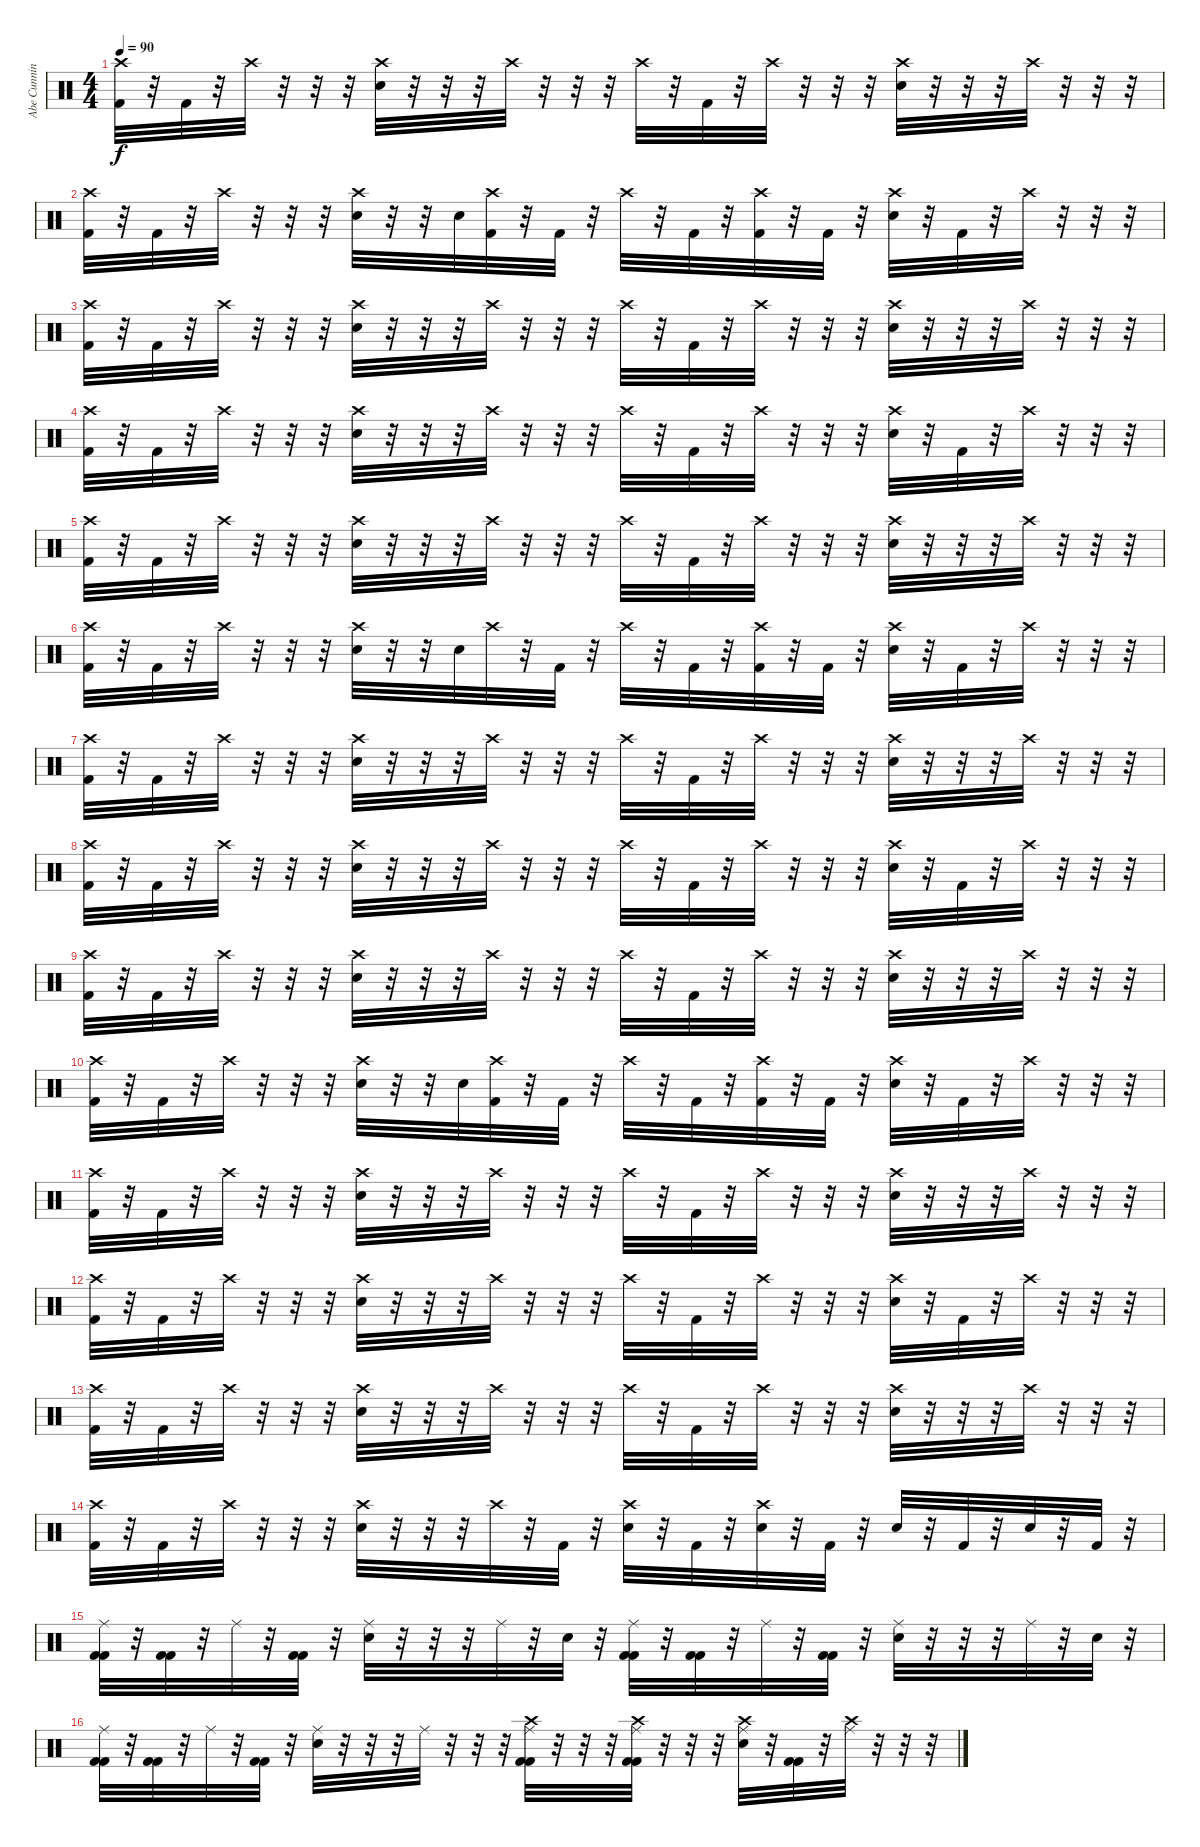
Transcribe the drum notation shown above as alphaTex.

\track ("Abe Cunningham - Drums" "Abe Cunnin") {instrument percussion}
\staff {score}
\articulation defaults
\ts (4 4)
\tempo 90
\clef neutral
\ks c
("Crash high (hit)" "Kick (hit) 2").32{dy f} r.32 "Kick (hit) 2".32 r.32 "Crash high (hit)".32 r.32 r.32 r.32 ("Crash high (hit)" "Electric Snare (hit)").32 r.32 r.32 r.32 "Crash high (hit)".32 r.32 r.32 r.32 "Crash high (hit)".32 r.32 "Kick (hit) 2".32 r.32 "Crash high (hit)".32 r.32 r.32 r.32 ("Crash high (hit)" "Electric Snare (hit)").32 r.32 r.32 r.32 "Crash high (hit)".32 r.32 r.32 r.32 |
("Crash high (hit)" "Kick (hit) 2").32 r.32 "Kick (hit) 2".32 r.32 "Crash high (hit)".32 r.32 r.32 r.32 ("Crash high (hit)" "Electric Snare (hit)").32 r.32 r.32 "Electric Snare (hit)".32 ("Crash high (hit)" "Kick (hit) 2").32 r.32 "Kick (hit) 2".32 r.32 "Crash high (hit)".32 r.32 "Kick (hit) 2".32 r.32 ("Crash high (hit)" "Kick (hit) 2").32 r.32 "Kick (hit) 2".32 r.32 ("Crash high (hit)" "Electric Snare (hit)").32 r.32 "Kick (hit) 2".32 r.32 "Crash high (hit)".32 r.32 r.32 r.32 |
("Crash high (hit)" "Kick (hit) 2").32 r.32 "Kick (hit) 2".32 r.32 "Crash high (hit)".32 r.32 r.32 r.32 ("Crash high (hit)" "Electric Snare (hit)").32 r.32 r.32 r.32 "Crash high (hit)".32 r.32 r.32 r.32 "Crash high (hit)".32 r.32 "Kick (hit) 2".32 r.32 "Crash high (hit)".32 r.32 r.32 r.32 ("Crash high (hit)" "Electric Snare (hit)").32 r.32 r.32 r.32 "Crash high (hit)".32 r.32 r.32 r.32 |
("Crash high (hit)" "Kick (hit) 2").32 r.32 "Kick (hit) 2".32 r.32 "Crash high (hit)".32 r.32 r.32 r.32 ("Crash high (hit)" "Electric Snare (hit)").32 r.32 r.32 r.32 "Crash high (hit)".32 r.32 r.32 r.32 "Crash high (hit)".32 r.32 "Kick (hit) 2".32 r.32 "Crash high (hit)".32 r.32 r.32 r.32 ("Crash high (hit)" "Electric Snare (hit)").32 r.32 "Kick (hit) 2".32 r.32 "Crash high (hit)".32 r.32 r.32 r.32 |
("Crash high (hit)" "Kick (hit) 2").32 r.32 "Kick (hit) 2".32 r.32 "Crash high (hit)".32 r.32 r.32 r.32 ("Crash high (hit)" "Electric Snare (hit)").32 r.32 r.32 r.32 "Crash high (hit)".32 r.32 r.32 r.32 "Crash high (hit)".32 r.32 "Kick (hit) 2".32 r.32 "Crash high (hit)".32 r.32 r.32 r.32 ("Crash high (hit)" "Electric Snare (hit)").32 r.32 r.32 r.32 "Crash high (hit)".32 r.32 r.32 r.32 |
("Crash high (hit)" "Kick (hit) 2").32 r.32 "Kick (hit) 2".32 r.32 "Crash high (hit)".32 r.32 r.32 r.32 ("Crash high (hit)" "Electric Snare (hit)").32 r.32 r.32 "Electric Snare (hit)".32 "Crash high (hit)".32 r.32 "Kick (hit) 2".32 r.32 "Crash high (hit)".32 r.32 "Kick (hit) 2".32 r.32 ("Crash high (hit)" "Kick (hit) 2").32 r.32 "Kick (hit) 2".32 r.32 ("Crash high (hit)" "Electric Snare (hit)").32 r.32 "Kick (hit) 2".32 r.32 "Crash high (hit)".32 r.32 r.32 r.32 |
("Crash high (hit)" "Kick (hit) 2").32 r.32 "Kick (hit) 2".32 r.32 "Crash high (hit)".32 r.32 r.32 r.32 ("Crash high (hit)" "Electric Snare (hit)").32 r.32 r.32 r.32 "Crash high (hit)".32 r.32 r.32 r.32 "Crash high (hit)".32 r.32 "Kick (hit) 2".32 r.32 "Crash high (hit)".32 r.32 r.32 r.32 ("Crash high (hit)" "Electric Snare (hit)").32 r.32 r.32 r.32 "Crash high (hit)".32 r.32 r.32 r.32 |
("Crash high (hit)" "Kick (hit) 2").32 r.32 "Kick (hit) 2".32 r.32 "Crash high (hit)".32 r.32 r.32 r.32 ("Crash high (hit)" "Electric Snare (hit)").32 r.32 r.32 r.32 "Crash high (hit)".32 r.32 r.32 r.32 "Crash high (hit)".32 r.32 "Kick (hit) 2".32 r.32 "Crash high (hit)".32 r.32 r.32 r.32 ("Crash high (hit)" "Electric Snare (hit)").32 r.32 "Kick (hit) 2".32 r.32 "Crash high (hit)".32 r.32 r.32 r.32 |
("Crash high (hit)" "Kick (hit) 2").32 r.32 "Kick (hit) 2".32 r.32 "Crash high (hit)".32 r.32 r.32 r.32 ("Crash high (hit)" "Electric Snare (hit)").32 r.32 r.32 r.32 "Crash high (hit)".32 r.32 r.32 r.32 "Crash high (hit)".32 r.32 "Kick (hit) 2".32 r.32 "Crash high (hit)".32 r.32 r.32 r.32 ("Crash high (hit)" "Electric Snare (hit)").32 r.32 r.32 r.32 "Crash high (hit)".32 r.32 r.32 r.32 |
("Crash high (hit)" "Kick (hit) 2").32 r.32 "Kick (hit) 2".32 r.32 "Crash high (hit)".32 r.32 r.32 r.32 ("Crash high (hit)" "Electric Snare (hit)").32 r.32 r.32 "Electric Snare (hit)".32 ("Crash high (hit)" "Kick (hit) 2").32 r.32 "Kick (hit) 2".32 r.32 "Crash high (hit)".32 r.32 "Kick (hit) 2".32 r.32 ("Crash high (hit)" "Kick (hit) 2").32 r.32 "Kick (hit) 2".32 r.32 ("Crash high (hit)" "Electric Snare (hit)").32 r.32 "Kick (hit) 2".32 r.32 "Crash high (hit)".32 r.32 r.32 r.32 |
("Crash high (hit)" "Kick (hit) 2").32 r.32 "Kick (hit) 2".32 r.32 "Crash high (hit)".32 r.32 r.32 r.32 ("Crash high (hit)" "Electric Snare (hit)").32 r.32 r.32 r.32 "Crash high (hit)".32 r.32 r.32 r.32 "Crash high (hit)".32 r.32 "Kick (hit) 2".32 r.32 "Crash high (hit)".32 r.32 r.32 r.32 ("Crash high (hit)" "Electric Snare (hit)").32 r.32 r.32 r.32 "Crash high (hit)".32 r.32 r.32 r.32 |
("Crash high (hit)" "Kick (hit) 2").32 r.32 "Kick (hit) 2".32 r.32 "Crash high (hit)".32 r.32 r.32 r.32 ("Crash high (hit)" "Electric Snare (hit)").32 r.32 r.32 r.32 "Crash high (hit)".32 r.32 r.32 r.32 "Crash high (hit)".32 r.32 "Kick (hit) 2".32 r.32 "Crash high (hit)".32 r.32 r.32 r.32 ("Crash high (hit)" "Electric Snare (hit)").32 r.32 "Kick (hit) 2".32 r.32 "Crash high (hit)".32 r.32 r.32 r.32 |
("Crash high (hit)" "Kick (hit) 2").32 r.32 "Kick (hit) 2".32 r.32 "Crash high (hit)".32 r.32 r.32 r.32 ("Crash high (hit)" "Electric Snare (hit)").32 r.32 r.32 r.32 "Crash high (hit)".32 r.32 r.32 r.32 "Crash high (hit)".32 r.32 "Kick (hit) 2".32 r.32 "Crash high (hit)".32 r.32 r.32 r.32 ("Crash high (hit)" "Electric Snare (hit)").32 r.32 r.32 r.32 "Crash high (hit)".32 r.32 r.32 r.32 |
("Crash high (hit)" "Kick (hit) 2").32 r.32 "Kick (hit) 2".32 r.32 "Crash high (hit)".32 r.32 r.32 r.32 ("Crash high (hit)" "Electric Snare (hit)").32 r.32 r.32 r.32 "Crash high (hit)".32 r.32 "Kick (hit) 2".32 r.32 ("Crash high (hit)" "Electric Snare (hit)").32 r.32 "Kick (hit) 2".32 r.32 ("Crash high (hit)" "Electric Snare (hit)").32 r.32 "Kick (hit) 2".32 r.32 "Electric Snare (hit)".32 r.32 "Kick (hit) 2".32 r.32 "Electric Snare (hit)".32 r.32 "Kick (hit) 2".32 r.32 |
("Ride (middle)" "Kick (hit) 2" "Kick (hit) 2").32 r.32 ("Kick (hit) 2" "Kick (hit) 2").32 r.32 "Ride (middle)".32 r.32 ("Kick (hit) 2" "Kick (hit) 2").32 r.32 ("Ride (middle)" "Electric Snare (hit)").32 r.32 r.32 r.32 "Ride (middle)".32 r.32 "Electric Snare (hit)".32 r.32 ("Ride (middle)" "Kick (hit) 2" "Kick (hit) 2").32 r.32 ("Kick (hit) 2" "Kick (hit) 2").32 r.32 "Ride (middle)".32 r.32 ("Kick (hit) 2" "Kick (hit) 2").32 r.32 ("Ride (middle)" "Electric Snare (hit)").32 r.32 r.32 r.32 "Ride (middle)".32 r.32 "Electric Snare (hit)".32 r.32 |
("Ride (middle)" "Kick (hit) 2" "Kick (hit) 2").32 r.32 ("Kick (hit) 2" "Kick (hit) 2").32 r.32 "Ride (middle)".32 r.32 ("Kick (hit) 2" "Kick (hit) 2").32 r.32 ("Ride (middle)" "Electric Snare (hit)").32 r.32 r.32 r.32 "Ride (middle)".32 r.32 r.32 r.32 ("Crash high (hit)" "Ride (middle)" "Kick (hit) 2" "Kick (hit) 2").32 r.32 r.32 r.32 ("Crash high (hit)" "Ride (middle)" "Kick (hit) 2" "Kick (hit) 2").32 r.32 r.32 r.32 ("Crash high (hit)" "Ride (middle)" "Electric Snare (hit)").32 r.32 ("Kick (hit) 2" "Kick (hit) 2").32 r.32 ("Crash high (hit)" "Ride (middle)").32 r.32 r.32 r.32
